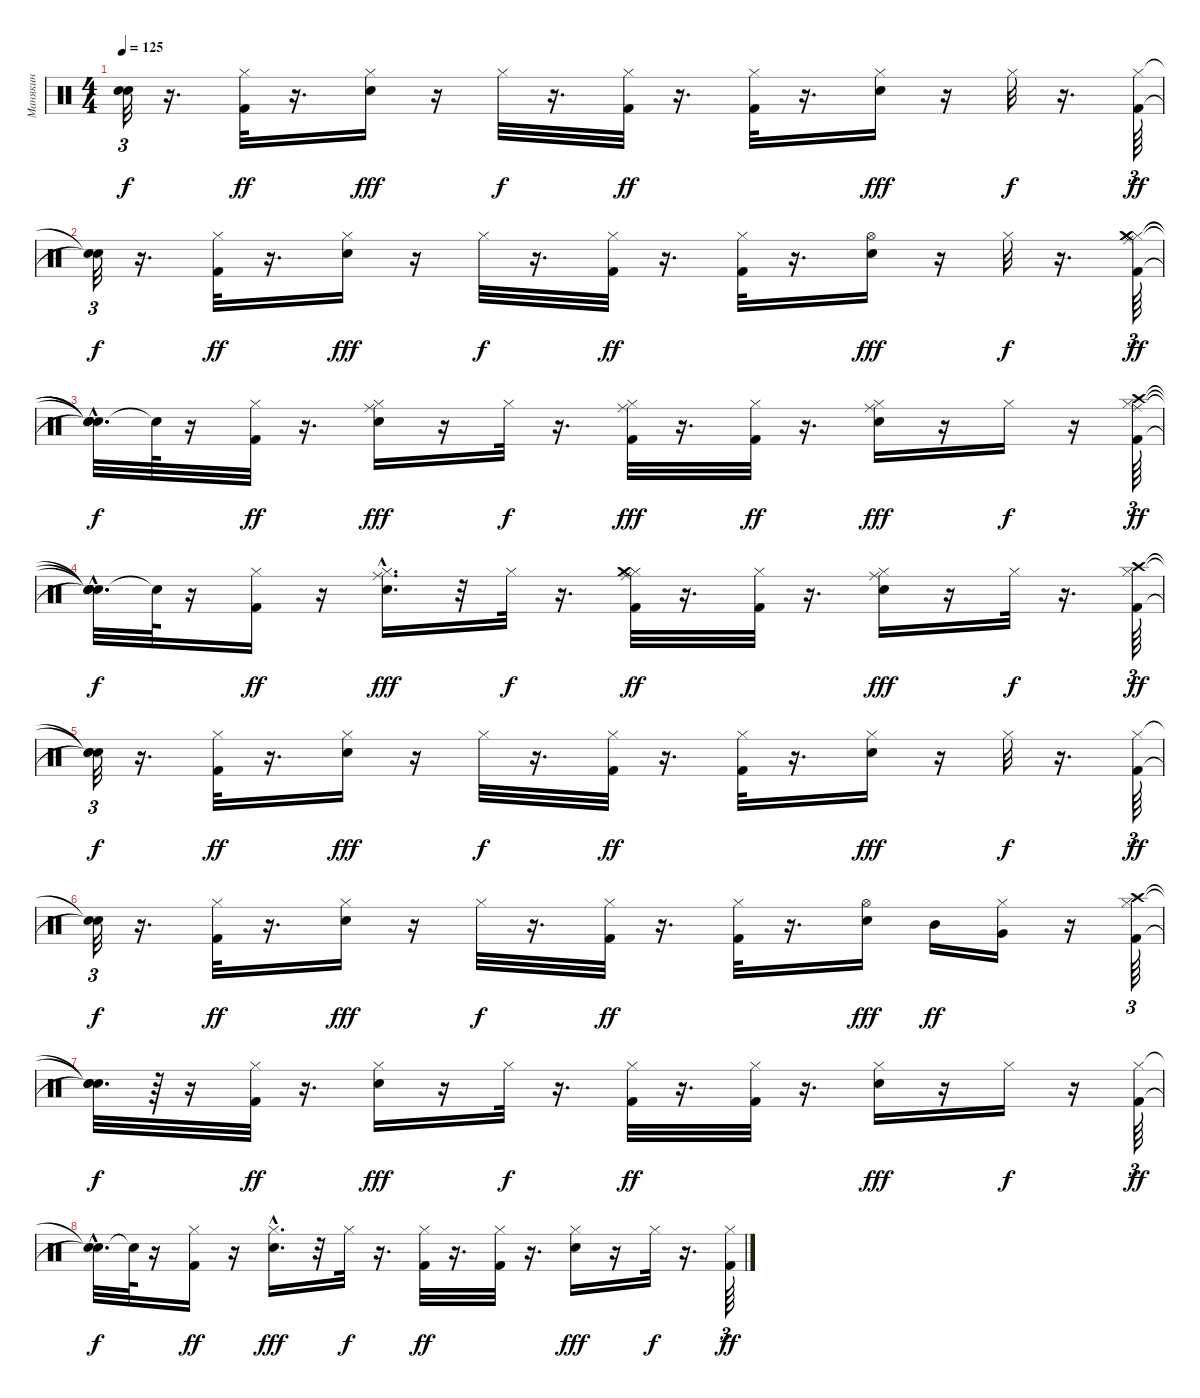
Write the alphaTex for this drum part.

\track ("Манякин" "Манякин") {instrument percussion}
\staff {score}
\articulation defaults
\ts (4 4)
\tempo 125
\clef neutral
\ks c
("Snare (hit)"{t} "Snare (hit)"{t}).32{tu (3 2) dy f} r.16{d} ("Kick (hit) 2" "Hi-Hat (closed)").32{dy ff} r.16{d} ("Snare (hit) 2" "Hi-Hat (closed)").16{dy fff} r.16 "Hi-Hat (closed)".32{dy f} r.16{d} ("Kick (hit) 2" "Hi-Hat (closed)").32{dy ff} r.16{d} ("Kick (hit) 2" "Hi-Hat (closed)").32 r.16{d} ("Snare (hit) 2" "Hi-Hat (closed)").16{dy fff} r.16 "Hi-Hat (closed)".32{dy f} r.16{d} ("Kick (hit) 2" "Hi-Hat (closed)").64{tu (3 2) dy ff} |
("Snare (hit)"{t} "Snare (hit)"{t}).32{tu (3 2) dy f} r.16{d} ("Kick (hit) 2" "Hi-Hat (closed)").32{dy ff} r.16{d} ("Snare (hit) 2" "Hi-Hat (closed)").16{dy fff} r.16 "Hi-Hat (closed)".32{dy f} r.16{d} ("Kick (hit) 2" "Hi-Hat (closed)").32{dy ff} r.16{d} ("Kick (hit) 2" "Hi-Hat (closed)").32 r.16{d} ("Snare (hit) 2" "Hi-Hat (open)").16{dy fff} r.16 "Hi-Hat (closed)".32{dy f} r.16{d} ("Kick (hit) 2" "Hi-Hat (closed)" "Ride (middle)" "Crash medium (hit)").64{tu (3 2) dy ff} |
("Snare (hit)"{t} "Snare (hit)"{t} "Snare (hit)"{t} "Snare (hit)"{hac t}).32{d dy f} "Snare (hit)"{t}.64 r.16 ("Kick (hit) 2" "Hi-Hat (closed)").32{dy ff} r.16{d} ("Snare (hit) 2" "Hi-Hat (closed)" "Ride (middle)").16{dy fff} r.16 "Hi-Hat (closed)".32{dy f} r.16{d} ("Kick (hit) 2" "Hi-Hat (closed)" "Ride (middle)").32{dy fff} r.16{d} ("Kick (hit) 2" "Hi-Hat (closed)").32{dy ff} r.16{d} ("Snare (hit) 2" "Hi-Hat (closed)" "Ride (middle)").16{dy fff} r.16 "Hi-Hat (closed)".16{dy f} r.16 ("Kick (hit) 2" "Hi-Hat (closed)" "Ride (middle)" "Crash high (hit)").64{tu (3 2) dy ff} |
("Snare (hit)"{t} "Snare (hit)"{hac t} "Snare (hit)"{t} "Snare (hit)"{t}).32{d dy f} "Snare (hit)"{t}.64 r.16 ("Kick (hit) 2" "Hi-Hat (closed)").16{dy ff} r.16 ("Snare (hit) 2"{hac} "Hi-Hat (closed)" "Ride (middle)").16{d dy fff} r.32 "Hi-Hat (closed)".32{dy f} r.16{d} ("Kick (hit) 2" "Hi-Hat (closed)" "Ride (middle)" "Crash medium (hit)").32{dy ff} r.16{d} ("Kick (hit) 2" "Hi-Hat (closed)").32 r.16{d} ("Snare (hit) 2" "Hi-Hat (closed)" "Ride (middle)").16{dy fff} r.16 "Hi-Hat (closed)".32{dy f} r.16{d} ("Kick (hit) 2" "Hi-Hat (closed)" "Crash high (hit)").64{tu (3 2) dy ff} |
("Snare (hit)"{t} "Snare (hit)"{t} "Snare (hit)"{t}).32{tu (3 2) dy f} r.16{d} ("Kick (hit) 2" "Hi-Hat (closed)").32{dy ff} r.16{d} ("Snare (hit) 2" "Hi-Hat (closed)").16{dy fff} r.16 "Hi-Hat (closed)".32{dy f} r.16{d} ("Kick (hit) 2" "Hi-Hat (closed)").32{dy ff} r.16{d} ("Kick (hit) 2" "Hi-Hat (closed)").32 r.16{d} ("Snare (hit) 2" "Hi-Hat (closed)").16{dy fff} r.16 "Hi-Hat (closed)".32{dy f} r.16{d} ("Kick (hit) 2" "Hi-Hat (closed)").64{tu (3 2) dy ff} |
("Snare (hit)"{t} "Snare (hit)"{t}).32{tu (3 2) dy f} r.16{d} ("Kick (hit) 2" "Hi-Hat (closed)").32{dy ff} r.16{d} ("Snare (hit) 2" "Hi-Hat (closed)").16{dy fff} r.16 "Hi-Hat (closed)".32{dy f} r.16{d} ("Kick (hit) 2" "Hi-Hat (closed)").32{dy ff} r.16{d} ("Kick (hit) 2" "Hi-Hat (closed)").32 r.16{d} ("Snare (hit) 2" "Hi-Hat (open)").16{dy fff} "Mid Tom (hit)".16{dy ff} ("Hi-Hat (closed)" "Very Low Tom (hit)").16 r.16 ("Kick (hit) 2" "Hi-Hat (closed)" "Crash high (hit)").64{tu (3 2)} |
("Snare (hit)"{t} "Snare (hit)"{t} "Snare (hit)"{t}).32{d dy f} r.64 r.16 ("Kick (hit) 2" "Hi-Hat (closed)").32{dy ff} r.16{d} ("Snare (hit) 2" "Hi-Hat (closed)").16{dy fff} r.16 "Hi-Hat (closed)".32{dy f} r.16{d} ("Kick (hit) 2" "Hi-Hat (closed)").32{dy ff} r.16{d} ("Kick (hit) 2" "Hi-Hat (closed)").32 r.16{d} ("Snare (hit) 2" "Hi-Hat (closed)").16{dy fff} r.16 "Hi-Hat (closed)".16{dy f} r.16 ("Kick (hit) 2" "Hi-Hat (closed)").64{tu (3 2) dy ff} |
("Snare (hit)"{t} "Snare (hit)"{hac t}).32{d dy f} "Snare (hit)"{t}.64 r.16 ("Kick (hit) 2" "Hi-Hat (closed)").16{dy ff} r.16 ("Snare (hit) 2"{hac} "Hi-Hat (closed)").16{d dy fff} r.32 "Hi-Hat (closed)".32{dy f} r.16{d} ("Kick (hit) 2" "Hi-Hat (closed)").32{dy ff} r.16{d} ("Kick (hit) 2" "Hi-Hat (closed)").32 r.16{d} ("Snare (hit) 2" "Hi-Hat (closed)").16{dy fff} r.16 "Hi-Hat (closed)".32{dy f} r.16{d} ("Kick (hit) 2" "Hi-Hat (closed)").64{tu (3 2) dy ff}
